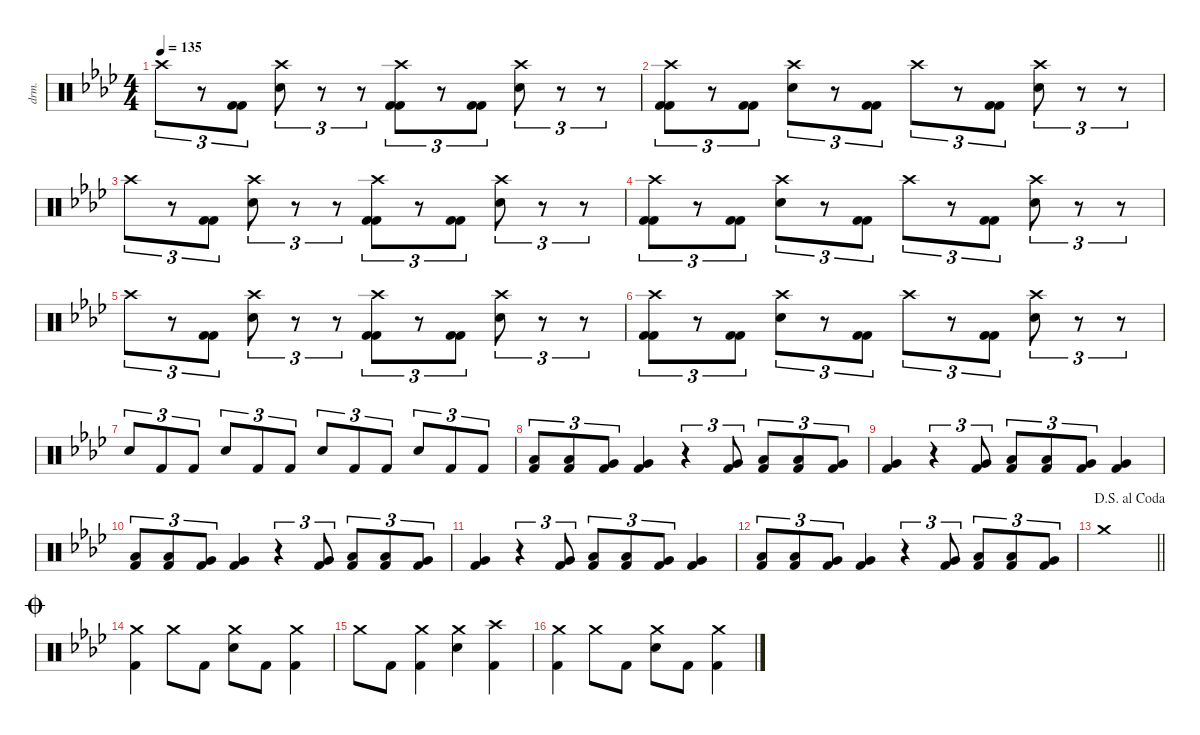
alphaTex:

\defaultSystemsLayout 4
\hideDynamics
\bracketExtendMode nobrackets
\otherSystemsTrackNameOrientation horizontal
\track ("Drums" "drm.") {defaultSystemsLayout 4 instrument percussion}
\staff {score}
\articulation defaults
\ts (4 4)
\tempo 135
\clef neutral
\ks ab "Crash high (hit)"{acc forcenatural}.8{tu (3 2) dy f beam Down}
r.8{tu (3 2) beam Down} ("Kick (hit) 2"{acc forcenatural} "Kick (hit) 2"{acc forcenatural}).8{tu (3 2) beam Down} ("Crash high (hit)"{acc forcenatural} "Snare (hit) 2"{acc forcenatural}).8{tu (3 2) beam Down} r.8{tu (3 2) beam Down} r.8{tu (3 2) beam Down} ("Crash high (hit)"{acc forcenatural} "Kick (hit) 2"{acc forcenatural} "Kick (hit) 2"{acc forcenatural}).8{tu (3 2) beam Down} r.8{tu (3 2) beam Down} ("Kick (hit) 2"{acc forcenatural} "Kick (hit) 2"{acc forcenatural}).8{tu (3 2) beam Down} ("Crash high (hit)"{acc forcenatural} "Snare (hit) 2"{acc forcenatural}).8{tu (3 2) beam Down} r.8{tu (3 2) beam Down} r.8{tu (3 2) beam Down} |
("Crash high (hit)"{acc forcenatural} "Kick (hit) 2"{acc forcenatural} "Kick (hit) 2"{acc forcenatural}).8{tu (3 2) beam Down} r.8{tu (3 2) beam Down} ("Kick (hit) 2"{acc forcenatural} "Kick (hit) 2"{acc forcenatural}).8{tu (3 2) beam Down} ("Crash high (hit)"{acc forcenatural} "Snare (hit) 2"{acc forcenatural}).8{tu (3 2) beam Down} r.8{tu (3 2) beam Down} ("Kick (hit) 2"{acc forcenatural} "Kick (hit) 2"{acc forcenatural}).8{tu (3 2) beam Down} "Crash high (hit)"{acc forcenatural}.8{tu (3 2) beam Down} r.8{tu (3 2) beam Down} ("Kick (hit) 2"{acc forcenatural} "Kick (hit) 2"{acc forcenatural}).8{tu (3 2) beam Down} ("Crash high (hit)"{acc forcenatural} "Snare (hit) 2"{acc forcenatural}).8{tu (3 2) beam Down} r.8{tu (3 2) beam Down} r.8{tu (3 2) beam Down} |
"Crash high (hit)"{acc forcenatural}.8{tu (3 2) beam Down} r.8{tu (3 2) beam Down} ("Kick (hit) 2"{acc forcenatural} "Kick (hit) 2"{acc forcenatural}).8{tu (3 2) beam Down} ("Crash high (hit)"{acc forcenatural} "Snare (hit) 2"{acc forcenatural}).8{tu (3 2) beam Down} r.8{tu (3 2) beam Down} r.8{tu (3 2) beam Down} ("Crash high (hit)"{acc forcenatural} "Kick (hit) 2"{acc forcenatural} "Kick (hit) 2"{acc forcenatural}).8{tu (3 2) beam Down} r.8{tu (3 2) beam Down} ("Kick (hit) 2"{acc forcenatural} "Kick (hit) 2"{acc forcenatural}).8{tu (3 2) beam Down} ("Crash high (hit)"{acc forcenatural} "Snare (hit) 2"{acc forcenatural}).8{tu (3 2) beam Down} r.8{tu (3 2) beam Down} r.8{tu (3 2) beam Down} |
("Crash high (hit)"{acc forcenatural} "Kick (hit) 2"{acc forcenatural} "Kick (hit) 2"{acc forcenatural}).8{tu (3 2) beam Down} r.8{tu (3 2) beam Down} ("Kick (hit) 2"{acc forcenatural} "Kick (hit) 2"{acc forcenatural}).8{tu (3 2) beam Down} ("Crash high (hit)"{acc forcenatural} "Snare (hit) 2"{acc forcenatural}).8{tu (3 2) beam Down} r.8{tu (3 2) beam Down} ("Kick (hit) 2"{acc forcenatural} "Kick (hit) 2"{acc forcenatural}).8{tu (3 2) beam Down} "Crash high (hit)"{acc forcenatural}.8{tu (3 2) beam Down} r.8{tu (3 2) beam Down} ("Kick (hit) 2"{acc forcenatural} "Kick (hit) 2"{acc forcenatural}).8{tu (3 2) beam Down} ("Crash high (hit)"{acc forcenatural} "Snare (hit) 2"{acc forcenatural}).8{tu (3 2) beam Down} r.8{tu (3 2) beam Down} r.8{tu (3 2) beam Down} |
"Crash high (hit)"{acc forcenatural}.8{tu (3 2) beam Down} r.8{tu (3 2) beam Down} ("Kick (hit) 2"{acc forcenatural} "Kick (hit) 2"{acc forcenatural}).8{tu (3 2) beam Down} ("Crash high (hit)"{acc forcenatural} "Snare (hit) 2"{acc forcenatural}).8{tu (3 2) beam Down} r.8{tu (3 2) beam Down} r.8{tu (3 2) beam Down} ("Crash high (hit)"{acc forcenatural} "Kick (hit) 2"{acc forcenatural} "Kick (hit) 2"{acc forcenatural}).8{tu (3 2) beam Down} r.8{tu (3 2) beam Down} ("Kick (hit) 2"{acc forcenatural} "Kick (hit) 2"{acc forcenatural}).8{tu (3 2) beam Down} ("Crash high (hit)"{acc forcenatural} "Snare (hit) 2"{acc forcenatural}).8{tu (3 2) beam Down} r.8{tu (3 2) beam Down} r.8{tu (3 2) beam Down} |
("Crash high (hit)"{acc forcenatural} "Kick (hit) 2"{acc forcenatural} "Kick (hit) 2"{acc forcenatural}).8{tu (3 2) beam Down} r.8{tu (3 2) beam Down} ("Kick (hit) 2"{acc forcenatural} "Kick (hit) 2"{acc forcenatural}).8{tu (3 2) beam Down} ("Crash high (hit)"{acc forcenatural} "Snare (hit) 2"{acc forcenatural}).8{tu (3 2) beam Down} r.8{tu (3 2) beam Down} ("Kick (hit) 2"{acc forcenatural} "Kick (hit) 2"{acc forcenatural}).8{tu (3 2) beam Down} "Crash high (hit)"{acc forcenatural}.8{tu (3 2) beam Down} r.8{tu (3 2) beam Down} ("Kick (hit) 2"{acc forcenatural} "Kick (hit) 2"{acc forcenatural}).8{tu (3 2) beam Down} ("Crash high (hit)"{acc forcenatural} "Snare (hit) 2"{acc forcenatural}).8{tu (3 2) beam Down} r.8{tu (3 2) beam Down} r.8{tu (3 2) beam Down} |
"Snare (hit) 2"{acc forcenatural}.8{tu (3 2) beam Up} "Kick (hit) 2"{acc forcenatural}.8{tu (3 2) beam Up} "Kick (hit) 2"{acc forcenatural}.8{tu (3 2) beam Up} "Snare (hit) 2"{acc forcenatural}.8{tu (3 2) beam Up} "Kick (hit) 2"{acc forcenatural}.8{tu (3 2) beam Up} "Kick (hit) 2"{acc forcenatural}.8{tu (3 2) beam Up} "Snare (hit) 2"{acc forcenatural}.8{tu (3 2) beam Up} "Kick (hit) 2"{acc forcenatural}.8{tu (3 2) beam Up} "Kick (hit) 2"{acc forcenatural}.8{tu (3 2) beam Up} "Snare (hit) 2"{acc forcenatural}.8{tu (3 2) beam Up} "Kick (hit) 2"{acc forcenatural}.8{tu (3 2) beam Up} "Kick (hit) 2"{acc forcenatural}.8{tu (3 2) beam Up} |
("Low Tom (hit)"{acc forcenatural} "Kick (hit) 2"{acc forcenatural}).8{tu (3 2) beam Up} ("Low Tom (hit)"{acc forcenatural} "Kick (hit) 2"{acc forcenatural}).8{tu (3 2) beam Up} ("Very Low Tom (hit)"{acc forcenatural} "Kick (hit) 2"{acc forcenatural}).8{tu (3 2) beam Up} ("Very Low Tom (hit)"{acc forcenatural} "Kick (hit) 2"{acc forcenatural}).4{beam Up} r.4{tu (3 2) beam Up} ("Very Low Tom (hit)"{acc forcenatural} "Kick (hit) 2"{acc forcenatural}).8{tu (3 2) beam Up} ("Low Tom (hit)"{acc forcenatural} "Kick (hit) 2"{acc forcenatural}).8{tu (3 2) beam Up} ("Low Tom (hit)"{acc forcenatural} "Kick (hit) 2"{acc forcenatural}).8{tu (3 2) beam Up} ("Very Low Tom (hit)"{acc forcenatural} "Kick (hit) 2"{acc forcenatural}).8{tu (3 2) beam Up} |
("Very Low Tom (hit)"{acc forcenatural} "Kick (hit) 2"{acc forcenatural}).4{beam Up} r.4{tu (3 2) beam Up} ("Very Low Tom (hit)"{acc forcenatural} "Kick (hit) 2"{acc forcenatural}).8{tu (3 2) beam Up} ("Low Tom (hit)"{acc forcenatural} "Kick (hit) 2"{acc forcenatural}).8{tu (3 2) beam Up} ("Low Tom (hit)"{acc forcenatural} "Kick (hit) 2"{acc forcenatural}).8{tu (3 2) beam Up} ("Very Low Tom (hit)"{acc forcenatural} "Kick (hit) 2"{acc forcenatural}).8{tu (3 2) beam Up} ("Very Low Tom (hit)"{acc forcenatural} "Kick (hit) 2"{acc forcenatural}).4{beam Up} |
("Low Tom (hit)"{acc forcenatural} "Kick (hit) 2"{acc forcenatural}).8{tu (3 2) beam Up} ("Low Tom (hit)"{acc forcenatural} "Kick (hit) 2"{acc forcenatural}).8{tu (3 2) beam Up} ("Very Low Tom (hit)"{acc forcenatural} "Kick (hit) 2"{acc forcenatural}).8{tu (3 2) beam Up} ("Very Low Tom (hit)"{acc forcenatural} "Kick (hit) 2"{acc forcenatural}).4{beam Up} r.4{tu (3 2) beam Up} ("Very Low Tom (hit)"{acc forcenatural} "Kick (hit) 2"{acc forcenatural}).8{tu (3 2) beam Up} ("Low Tom (hit)"{acc forcenatural} "Kick (hit) 2"{acc forcenatural}).8{tu (3 2) beam Up} ("Low Tom (hit)"{acc forcenatural} "Kick (hit) 2"{acc forcenatural}).8{tu (3 2) beam Up} ("Very Low Tom (hit)"{acc forcenatural} "Kick (hit) 2"{acc forcenatural}).8{tu (3 2) beam Up} |
("Very Low Tom (hit)"{acc forcenatural} "Kick (hit) 2"{acc forcenatural}).4{beam Up} r.4{tu (3 2) beam Up} ("Very Low Tom (hit)"{acc forcenatural} "Kick (hit) 2"{acc forcenatural}).8{tu (3 2) beam Up} ("Low Tom (hit)"{acc forcenatural} "Kick (hit) 2"{acc forcenatural}).8{tu (3 2) beam Up} ("Low Tom (hit)"{acc forcenatural} "Kick (hit) 2"{acc forcenatural}).8{tu (3 2) beam Up} ("Very Low Tom (hit)"{acc forcenatural} "Kick (hit) 2"{acc forcenatural}).8{tu (3 2) beam Up} ("Very Low Tom (hit)"{acc forcenatural} "Kick (hit) 2"{acc forcenatural}).4{beam Up} |
("Low Tom (hit)"{acc forcenatural} "Kick (hit) 2"{acc forcenatural}).8{tu (3 2) beam Up} ("Low Tom (hit)"{acc forcenatural} "Kick (hit) 2"{acc forcenatural}).8{tu (3 2) beam Up} ("Very Low Tom (hit)"{acc forcenatural} "Kick (hit) 2"{acc forcenatural}).8{tu (3 2) beam Up} ("Very Low Tom (hit)"{acc forcenatural} "Kick (hit) 2"{acc forcenatural}).4{beam Up} r.4{tu (3 2) beam Up} ("Very Low Tom (hit)"{acc forcenatural} "Kick (hit) 2"{acc forcenatural}).8{tu (3 2) beam Up} ("Low Tom (hit)"{acc forcenatural} "Kick (hit) 2"{acc forcenatural}).8{tu (3 2) beam Up} ("Low Tom (hit)"{acc forcenatural} "Kick (hit) 2"{acc forcenatural}).8{tu (3 2) beam Up} ("Very Low Tom (hit)"{acc forcenatural} "Kick (hit) 2"{acc forcenatural}).8{tu (3 2) beam Up} |
\jump dalsegnoalcoda
\barLineRight lightlight "Crash medium (hit)"{acc forcenatural}.1{beam Down}
|
\jump coda
("Crash medium (hit)"{acc forcenatural} "Kick (hit) 2"{acc forcenatural}).4{beam Down} "Crash medium (hit)"{acc forcenatural}.8{beam Down} "Kick (hit) 2"{acc forcenatural}.8{beam Down} ("Crash medium (hit)"{acc forcenatural} "Snare (hit) 2"{acc forcenatural}).8{beam Down} "Kick (hit) 2"{acc forcenatural}.8{beam Down} ("Crash medium (hit)"{acc forcenatural} "Kick (hit) 2"{acc forcenatural}).4{beam Down} |
"Crash medium (hit)"{acc forcenatural}.8{beam Down} "Kick (hit) 2"{acc forcenatural}.8{beam Down} ("Crash medium (hit)"{acc forcenatural} "Kick (hit) 2"{acc forcenatural}).4{beam Down} ("Crash medium (hit)"{acc forcenatural} "Snare (hit) 2"{acc forcenatural}).4{beam Down} ("Crash high (hit)"{acc forcenatural} "Kick (hit) 2"{acc forcenatural}).4{beam Down} |
("Crash medium (hit)"{acc forcenatural} "Kick (hit) 2"{acc forcenatural}).4{beam Down} "Crash medium (hit)"{acc forcenatural}.8{beam Down} "Kick (hit) 2"{acc forcenatural}.8{beam Down} ("Crash medium (hit)"{acc forcenatural} "Snare (hit) 2"{acc forcenatural}).8{beam Down} "Kick (hit) 2"{acc forcenatural}.8{beam Down} ("Crash medium (hit)"{acc forcenatural} "Kick (hit) 2"{acc forcenatural}).4{beam Down}
